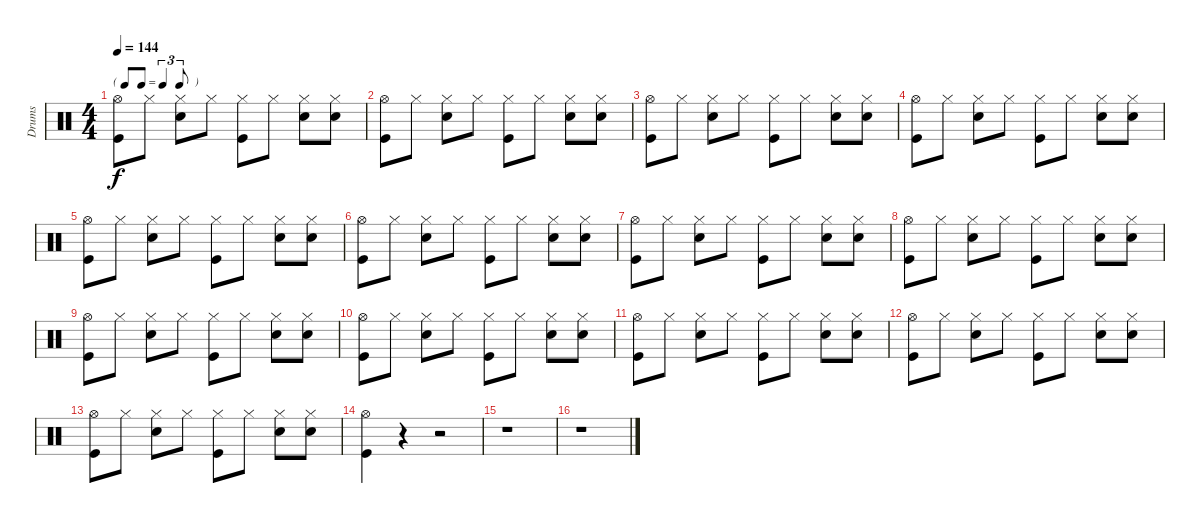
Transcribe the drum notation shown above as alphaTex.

\track ("Drums" "Drums") {instrument percussion}
\staff {score}
\articulation defaults
\ts (4 4)
\tf triplet8th
\tempo 144
\clef neutral
\ks c
("Kick (hit)" "Hi-Hat (open)").8{dy f} "Hi-Hat (closed)".8 ("Snare (hit) 2" "Hi-Hat (closed)").8 "Hi-Hat (closed)".8 ("Kick (hit)" "Hi-Hat (closed)").8 "Hi-Hat (closed)".8 ("Snare (hit) 2" "Hi-Hat (closed)").8 ("Snare (hit) 2" "Hi-Hat (closed)").8 |
("Kick (hit)" "Hi-Hat (open)").8 "Hi-Hat (closed)".8 ("Snare (hit) 2" "Hi-Hat (closed)").8 "Hi-Hat (closed)".8 ("Kick (hit)" "Hi-Hat (closed)").8 "Hi-Hat (closed)".8 ("Snare (hit) 2" "Hi-Hat (closed)").8 ("Snare (hit) 2" "Hi-Hat (closed)").8 |
("Kick (hit)" "Hi-Hat (open)").8 "Hi-Hat (closed)".8 ("Snare (hit) 2" "Hi-Hat (closed)").8 "Hi-Hat (closed)".8 ("Kick (hit)" "Hi-Hat (closed)").8 "Hi-Hat (closed)".8 ("Snare (hit) 2" "Hi-Hat (closed)").8 ("Snare (hit) 2" "Hi-Hat (closed)").8 |
("Kick (hit)" "Hi-Hat (open)").8 "Hi-Hat (closed)".8 ("Snare (hit) 2" "Hi-Hat (closed)").8 "Hi-Hat (closed)".8 ("Kick (hit)" "Hi-Hat (closed)").8 "Hi-Hat (closed)".8 ("Snare (hit) 2" "Hi-Hat (closed)").8 ("Snare (hit) 2" "Hi-Hat (closed)").8 |
("Kick (hit)" "Hi-Hat (open)").8 "Hi-Hat (closed)".8 ("Snare (hit) 2" "Hi-Hat (closed)").8 "Hi-Hat (closed)".8 ("Kick (hit)" "Hi-Hat (closed)").8 "Hi-Hat (closed)".8 ("Snare (hit) 2" "Hi-Hat (closed)").8 ("Snare (hit) 2" "Hi-Hat (closed)").8 |
("Kick (hit)" "Hi-Hat (open)").8 "Hi-Hat (closed)".8 ("Snare (hit) 2" "Hi-Hat (closed)").8 "Hi-Hat (closed)".8 ("Kick (hit)" "Hi-Hat (closed)").8 "Hi-Hat (closed)".8 ("Snare (hit) 2" "Hi-Hat (closed)").8 ("Snare (hit) 2" "Hi-Hat (closed)").8 |
("Kick (hit)" "Hi-Hat (open)").8 "Hi-Hat (closed)".8 ("Snare (hit) 2" "Hi-Hat (closed)").8 "Hi-Hat (closed)".8 ("Kick (hit)" "Hi-Hat (closed)").8 "Hi-Hat (closed)".8 ("Snare (hit) 2" "Hi-Hat (closed)").8 ("Snare (hit) 2" "Hi-Hat (closed)").8 |
("Kick (hit)" "Hi-Hat (open)").8 "Hi-Hat (closed)".8 ("Snare (hit) 2" "Hi-Hat (closed)").8 "Hi-Hat (closed)".8 ("Kick (hit)" "Hi-Hat (closed)").8 "Hi-Hat (closed)".8 ("Snare (hit) 2" "Hi-Hat (closed)").8 ("Snare (hit) 2" "Hi-Hat (closed)").8 |
("Kick (hit)" "Hi-Hat (open)").8 "Hi-Hat (closed)".8 ("Snare (hit) 2" "Hi-Hat (closed)").8 "Hi-Hat (closed)".8 ("Kick (hit)" "Hi-Hat (closed)").8 "Hi-Hat (closed)".8 ("Snare (hit) 2" "Hi-Hat (closed)").8 ("Snare (hit) 2" "Hi-Hat (closed)").8 |
("Kick (hit)" "Hi-Hat (open)").8 "Hi-Hat (closed)".8 ("Snare (hit) 2" "Hi-Hat (closed)").8 "Hi-Hat (closed)".8 ("Kick (hit)" "Hi-Hat (closed)").8 "Hi-Hat (closed)".8 ("Snare (hit) 2" "Hi-Hat (closed)").8 ("Snare (hit) 2" "Hi-Hat (closed)").8 |
("Kick (hit)" "Hi-Hat (open)").8 "Hi-Hat (closed)".8 ("Snare (hit) 2" "Hi-Hat (closed)").8 "Hi-Hat (closed)".8 ("Kick (hit)" "Hi-Hat (closed)").8 "Hi-Hat (closed)".8 ("Snare (hit) 2" "Hi-Hat (closed)").8 ("Snare (hit) 2" "Hi-Hat (closed)").8 |
("Kick (hit)" "Hi-Hat (open)").8 "Hi-Hat (closed)".8 ("Snare (hit) 2" "Hi-Hat (closed)").8 "Hi-Hat (closed)".8 ("Kick (hit)" "Hi-Hat (closed)").8 "Hi-Hat (closed)".8 ("Snare (hit) 2" "Hi-Hat (closed)").8 ("Snare (hit) 2" "Hi-Hat (closed)").8 |
("Kick (hit)" "Hi-Hat (open)").8 "Hi-Hat (closed)".8 ("Snare (hit) 2" "Hi-Hat (closed)").8 "Hi-Hat (closed)".8 ("Kick (hit)" "Hi-Hat (closed)").8 "Hi-Hat (closed)".8 ("Snare (hit) 2" "Hi-Hat (closed)").8 ("Snare (hit) 2" "Hi-Hat (closed)").8 |
("Kick (hit)" "Hi-Hat (open)").4 r.4 r.2 |
r.1 |
r.1
